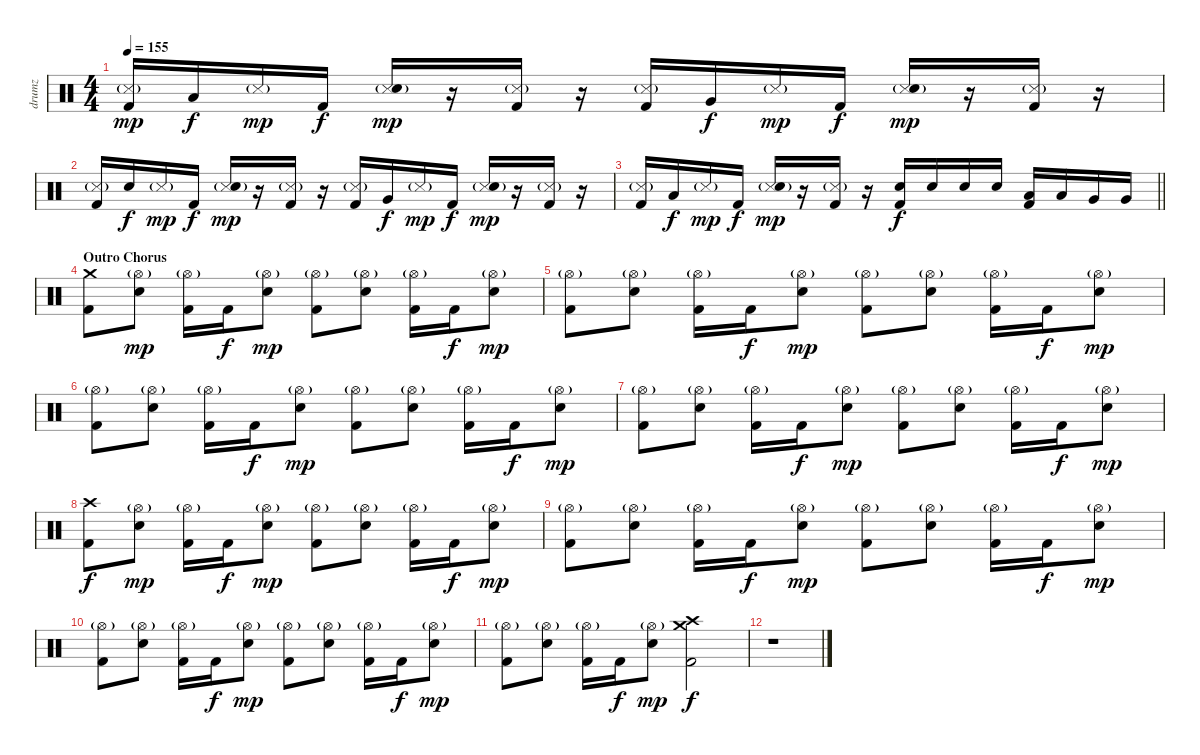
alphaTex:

\track ("drumz" "drumz") {instrument percussion}
\staff {score}
\articulation defaults
\ts (4 4)
\tempo 155
\clef neutral
\ks c
("Metronome (hit)"{g} "Kick (hit) 2").16{dy mp} "Low Tom (hit)".16{dy f} "Metronome (hit)"{g}.16{dy mp} "Kick (hit) 2".16{dy f} ("Metronome (hit)"{g} "Electric Snare (hit)").16{dy mp} r.16 ("Metronome (hit)"{g} "Kick (hit) 2").16 r.16 ("Metronome (hit)"{g} "Kick (hit) 2").16 "Very Low Tom (hit)".16{dy f} "Metronome (hit)"{g}.16{dy mp} "Kick (hit) 2".16{dy f} ("Metronome (hit)"{g} "Electric Snare (hit)").16{dy mp} r.16 ("Metronome (hit)"{g} "Kick (hit) 2").16 r.16 |
("Metronome (hit)"{g} "Kick (hit) 2").16 "Electric Snare (hit)".16{dy f} "Metronome (hit)"{g}.16{dy mp} "Kick (hit) 2".16{dy f} ("Metronome (hit)"{g} "Electric Snare (hit)").16{dy mp} r.16 ("Metronome (hit)"{g} "Kick (hit) 2").16 r.16 ("Metronome (hit)"{g} "Kick (hit) 2").16 "Very Low Tom (hit)".16{dy f} "Metronome (hit)"{g}.16{dy mp} "Kick (hit) 2".16{dy f} ("Metronome (hit)"{g} "Electric Snare (hit)").16{dy mp} r.16 ("Metronome (hit)"{g} "Kick (hit) 2").16 r.16 |
\barLineRight lightlight
("Metronome (hit)"{g} "Kick (hit) 2").16 "Low Tom (hit)".16{dy f} "Metronome (hit)"{g}.16{dy mp} "Kick (hit) 2".16{dy f} ("Metronome (hit)"{g} "Electric Snare (hit)").16{dy mp} r.16 ("Metronome (hit)"{g} "Kick (hit) 2").16 r.16 ("Electric Snare (hit)" "Kick (hit) 2").16{dy f} "Electric Snare (hit)".16 "Electric Snare (hit)".16 "Electric Snare (hit)".16 ("Low Tom (hit)" "Kick (hit) 2").16 "Low Tom (hit)".16 "Very Low Tom (hit)".16 "Very Low Tom (hit)".16 |
\section ("" "Outro Chorus")
("Crash medium (hit)" "Kick (hit) 2").8 ("Hi-Hat (open)"{g} "Electric Snare (hit)").8{dy mp} ("Hi-Hat (open)"{g} "Kick (hit) 2").16 "Kick (hit) 2".16{dy f} ("Hi-Hat (open)"{g} "Electric Snare (hit)").8{dy mp} ("Hi-Hat (open)"{g} "Kick (hit) 2").8 ("Hi-Hat (open)"{g} "Electric Snare (hit)").8 ("Hi-Hat (open)"{g} "Kick (hit) 2").16 "Kick (hit) 2".16{dy f} ("Hi-Hat (open)"{g} "Electric Snare (hit)").8{dy mp} |
("Hi-Hat (open)"{g} "Kick (hit) 2").8 ("Hi-Hat (open)"{g} "Electric Snare (hit)").8 ("Hi-Hat (open)"{g} "Kick (hit) 2").16 "Kick (hit) 2".16{dy f} ("Hi-Hat (open)"{g} "Electric Snare (hit)").8{dy mp} ("Hi-Hat (open)"{g} "Kick (hit) 2").8 ("Hi-Hat (open)"{g} "Electric Snare (hit)").8 ("Hi-Hat (open)"{g} "Kick (hit) 2").16 "Kick (hit) 2".16{dy f} ("Hi-Hat (open)"{g} "Electric Snare (hit)").8{dy mp} |
("Hi-Hat (open)"{g} "Kick (hit) 2").8 ("Hi-Hat (open)"{g} "Electric Snare (hit)").8 ("Hi-Hat (open)"{g} "Kick (hit) 2").16 "Kick (hit) 2".16{dy f} ("Hi-Hat (open)"{g} "Electric Snare (hit)").8{dy mp} ("Hi-Hat (open)"{g} "Kick (hit) 2").8 ("Hi-Hat (open)"{g} "Electric Snare (hit)").8 ("Hi-Hat (open)"{g} "Kick (hit) 2").16 "Kick (hit) 2".16{dy f} ("Hi-Hat (open)"{g} "Electric Snare (hit)").8{dy mp} |
("Hi-Hat (open)"{g} "Kick (hit) 2").8 ("Hi-Hat (open)"{g} "Electric Snare (hit)").8 ("Hi-Hat (open)"{g} "Kick (hit) 2").16 "Kick (hit) 2".16{dy f} ("Hi-Hat (open)"{g} "Electric Snare (hit)").8{dy mp} ("Hi-Hat (open)"{g} "Kick (hit) 2").8 ("Hi-Hat (open)"{g} "Electric Snare (hit)").8 ("Hi-Hat (open)"{g} "Kick (hit) 2").16 "Kick (hit) 2".16{dy f} ("Hi-Hat (open)"{g} "Electric Snare (hit)").8{dy mp} |
("Crash high (hit)" "Kick (hit) 2").8{dy f} ("Hi-Hat (open)"{g} "Electric Snare (hit)").8{dy mp} ("Hi-Hat (open)"{g} "Kick (hit) 2").16 "Kick (hit) 2".16{dy f} ("Hi-Hat (open)"{g} "Electric Snare (hit)").8{dy mp} ("Hi-Hat (open)"{g} "Kick (hit) 2").8 ("Hi-Hat (open)"{g} "Electric Snare (hit)").8 ("Hi-Hat (open)"{g} "Kick (hit) 2").16 "Kick (hit) 2".16{dy f} ("Hi-Hat (open)"{g} "Electric Snare (hit)").8{dy mp} |
("Hi-Hat (open)"{g} "Kick (hit) 2").8 ("Hi-Hat (open)"{g} "Electric Snare (hit)").8 ("Hi-Hat (open)"{g} "Kick (hit) 2").16 "Kick (hit) 2".16{dy f} ("Hi-Hat (open)"{g} "Electric Snare (hit)").8{dy mp} ("Hi-Hat (open)"{g} "Kick (hit) 2").8 ("Hi-Hat (open)"{g} "Electric Snare (hit)").8 ("Hi-Hat (open)"{g} "Kick (hit) 2").16 "Kick (hit) 2".16{dy f} ("Hi-Hat (open)"{g} "Electric Snare (hit)").8{dy mp} |
("Hi-Hat (open)"{g} "Kick (hit) 2").8 ("Hi-Hat (open)"{g} "Electric Snare (hit)").8 ("Hi-Hat (open)"{g} "Kick (hit) 2").16 "Kick (hit) 2".16{dy f} ("Hi-Hat (open)"{g} "Electric Snare (hit)").8{dy mp} ("Hi-Hat (open)"{g} "Kick (hit) 2").8 ("Hi-Hat (open)"{g} "Electric Snare (hit)").8 ("Hi-Hat (open)"{g} "Kick (hit) 2").16 "Kick (hit) 2".16{dy f} ("Hi-Hat (open)"{g} "Electric Snare (hit)").8{dy mp} |
("Hi-Hat (open)"{g} "Kick (hit) 2").8 ("Hi-Hat (open)"{g} "Electric Snare (hit)").8 ("Hi-Hat (open)"{g} "Kick (hit) 2").16 "Kick (hit) 2".16{dy f} ("Hi-Hat (open)"{g} "Electric Snare (hit)").8{dy mp} ("Crash medium (hit)" "Crash high (hit)" "Kick (hit) 2").2{dy f} |
r.1
